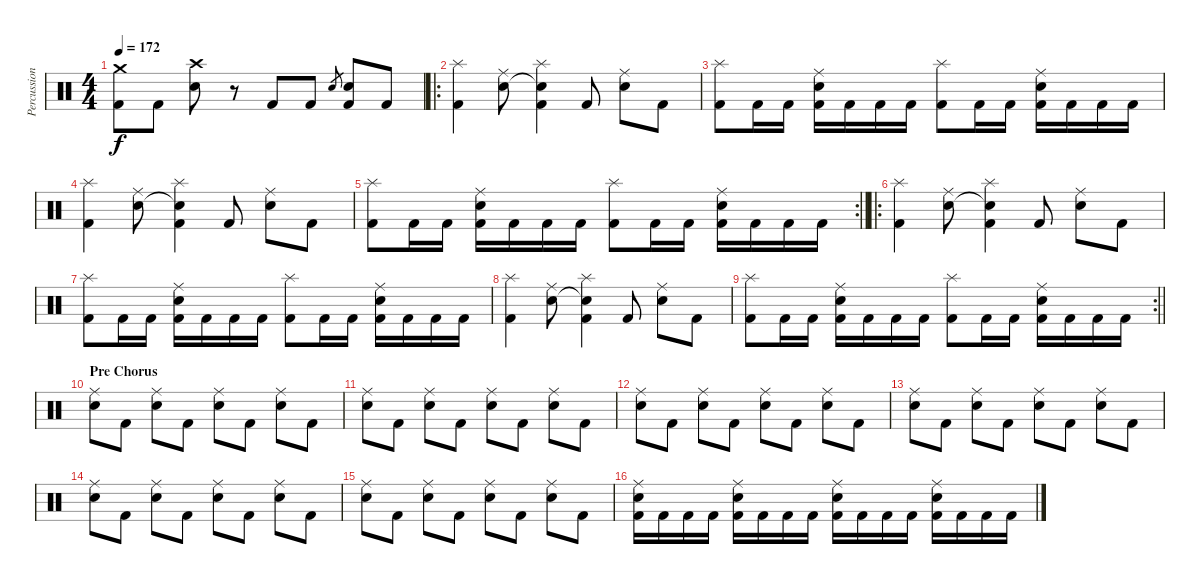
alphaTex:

\track ("Percussion" "Percussion") {instrument percussion}
\staff {score}
\articulation defaults
\ts (4 4)
\tempo 172
\clef neutral
\ks c
("Crash medium (hit)"{t} "Kick (hit) 2"{t}).8{dy f} "Kick (hit) 2".8 ("Crash high (hit)" "Electric Snare (hit)").8 r.8 "Kick (hit) 2".8 "Kick (hit) 2".8 "Electric Snare (hit)".8{gr} ("Electric Snare (hit)" "Kick (hit) 2").8 "Kick (hit) 2".8 |
\ro
("Splash (hit)" "Kick (hit) 2").4 ("Ride (middle)" "Electric Snare (hit)").8 ("Splash (hit)" "Electric Snare (hit)"{t} "Kick (hit) 2").4 "Kick (hit) 2".8 ("Ride (middle)" "Electric Snare (hit)").8 "Kick (hit) 2".8 |
("Splash (hit)" "Kick (hit) 2").8 "Kick (hit) 2".16 "Kick (hit) 2".16 ("Ride (middle)" "Electric Snare (hit)" "Kick (hit) 2").16 "Kick (hit) 2".16 "Kick (hit) 2".16 "Kick (hit) 2".16 ("Splash (hit)" "Kick (hit) 2").8 "Kick (hit) 2".16 "Kick (hit) 2".16 ("Ride (middle)" "Electric Snare (hit)" "Kick (hit) 2").16 "Kick (hit) 2".16 "Kick (hit) 2".16 "Kick (hit) 2".16 |
("Splash (hit)" "Kick (hit) 2").4 ("Ride (middle)" "Electric Snare (hit)").8 ("Splash (hit)" "Electric Snare (hit)"{t} "Kick (hit) 2").4 "Kick (hit) 2".8 ("Ride (middle)" "Electric Snare (hit)").8 "Kick (hit) 2".8 |
\rc 2
\barLineRight lightlight
("Splash (hit)" "Kick (hit) 2").8 "Kick (hit) 2".16 "Kick (hit) 2".16 ("Ride (middle)" "Electric Snare (hit)" "Kick (hit) 2").16 "Kick (hit) 2".16 "Kick (hit) 2".16 "Kick (hit) 2".16 ("Splash (hit)" "Kick (hit) 2").8 "Kick (hit) 2".16 "Kick (hit) 2".16 ("Ride (middle)" "Electric Snare (hit)" "Kick (hit) 2").16 "Kick (hit) 2".16 "Kick (hit) 2".16 "Kick (hit) 2".16 |
\ro
("Splash (hit)" "Kick (hit) 2").4 ("Ride (middle)" "Electric Snare (hit)").8 ("Splash (hit)" "Electric Snare (hit)"{t} "Kick (hit) 2").4 "Kick (hit) 2".8 ("Ride (middle)" "Electric Snare (hit)").8 "Kick (hit) 2".8 |
("Splash (hit)" "Kick (hit) 2").8 "Kick (hit) 2".16 "Kick (hit) 2".16 ("Ride (middle)" "Electric Snare (hit)" "Kick (hit) 2").16 "Kick (hit) 2".16 "Kick (hit) 2".16 "Kick (hit) 2".16 ("Splash (hit)" "Kick (hit) 2").8 "Kick (hit) 2".16 "Kick (hit) 2".16 ("Ride (middle)" "Electric Snare (hit)" "Kick (hit) 2").16 "Kick (hit) 2".16 "Kick (hit) 2".16 "Kick (hit) 2".16 |
("Splash (hit)" "Kick (hit) 2").4 ("Ride (middle)" "Electric Snare (hit)").8 ("Splash (hit)" "Electric Snare (hit)"{t} "Kick (hit) 2").4 "Kick (hit) 2".8 ("Ride (middle)" "Electric Snare (hit)").8 "Kick (hit) 2".8 |
\rc 2
\barLineRight lightlight
("Splash (hit)" "Kick (hit) 2").8 "Kick (hit) 2".16 "Kick (hit) 2".16 ("Ride (middle)" "Electric Snare (hit)" "Kick (hit) 2").16 "Kick (hit) 2".16 "Kick (hit) 2".16 "Kick (hit) 2".16 ("Splash (hit)" "Kick (hit) 2").8 "Kick (hit) 2".16 "Kick (hit) 2".16 ("Ride (middle)" "Electric Snare (hit)" "Kick (hit) 2").16 "Kick (hit) 2".16 "Kick (hit) 2".16 "Kick (hit) 2".16 |
\section ("" "Pre Chorus")
("Ride (middle)" "Electric Snare (hit)").8 "Kick (hit) 2".8 ("Ride (middle)" "Electric Snare (hit)").8 "Kick (hit) 2".8 ("Ride (middle)" "Electric Snare (hit)").8 "Kick (hit) 2".8 ("Ride (middle)" "Electric Snare (hit)").8 "Kick (hit) 2".8 |
("Ride (middle)" "Electric Snare (hit)").8 "Kick (hit) 2".8 ("Ride (middle)" "Electric Snare (hit)").8 "Kick (hit) 2".8 ("Ride (middle)" "Electric Snare (hit)").8 "Kick (hit) 2".8 ("Ride (middle)" "Electric Snare (hit)").8 "Kick (hit) 2".8 |
("Ride (middle)" "Electric Snare (hit)").8 "Kick (hit) 2".8 ("Ride (middle)" "Electric Snare (hit)").8 "Kick (hit) 2".8 ("Ride (middle)" "Electric Snare (hit)").8 "Kick (hit) 2".8 ("Ride (middle)" "Electric Snare (hit)").8 "Kick (hit) 2".8 |
("Ride (middle)" "Electric Snare (hit)").8 "Kick (hit) 2".8 ("Ride (middle)" "Electric Snare (hit)").8 "Kick (hit) 2".8 ("Ride (middle)" "Electric Snare (hit)").8 "Kick (hit) 2".8 ("Ride (middle)" "Electric Snare (hit)").8 "Kick (hit) 2".8 |
("Ride (middle)" "Electric Snare (hit)").8 "Kick (hit) 2".8 ("Ride (middle)" "Electric Snare (hit)").8 "Kick (hit) 2".8 ("Ride (middle)" "Electric Snare (hit)").8 "Kick (hit) 2".8 ("Ride (middle)" "Electric Snare (hit)").8 "Kick (hit) 2".8 |
("Ride (middle)" "Electric Snare (hit)").8 "Kick (hit) 2".8 ("Ride (middle)" "Electric Snare (hit)").8 "Kick (hit) 2".8 ("Ride (middle)" "Electric Snare (hit)").8 "Kick (hit) 2".8 ("Ride (middle)" "Electric Snare (hit)").8 "Kick (hit) 2".8 |
("Ride (middle)" "Electric Snare (hit)" "Kick (hit) 2").16 "Kick (hit) 2".16 "Kick (hit) 2".16 "Kick (hit) 2".16 ("Ride (middle)" "Electric Snare (hit)" "Kick (hit) 2").16 "Kick (hit) 2".16 "Kick (hit) 2".16 "Kick (hit) 2".16 ("Ride (middle)" "Electric Snare (hit)" "Kick (hit) 2").16 "Kick (hit) 2".16 "Kick (hit) 2".16 "Kick (hit) 2".16 ("Ride (middle)" "Electric Snare (hit)" "Kick (hit) 2").16 "Kick (hit) 2".16 "Kick (hit) 2".16 "Kick (hit) 2".16
